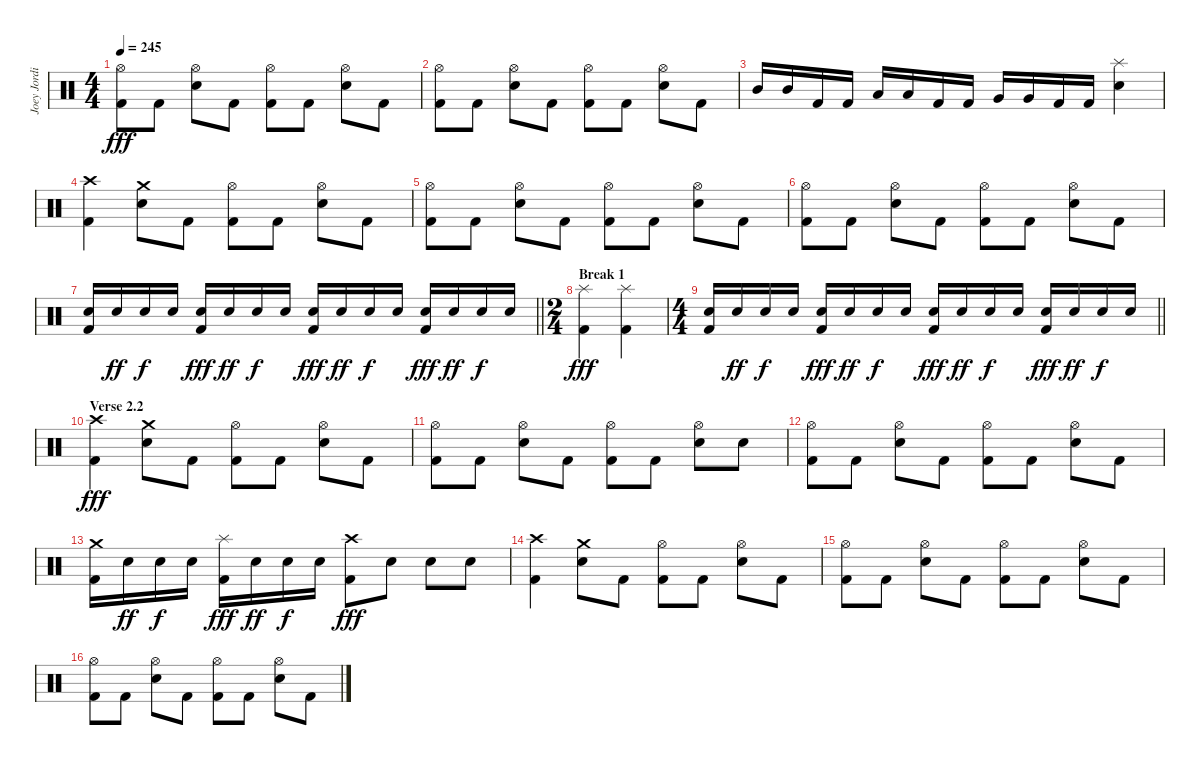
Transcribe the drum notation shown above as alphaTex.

\track ("Joey Jordison" "Joey Jordi") {instrument percussion}
\staff {score}
\articulation defaults
\ts (4 4)
\tempo 245
\clef neutral
\ks c
("Hi-Hat (open)" "Kick (hit) 2").8{dy fff} "Kick (hit) 2".8 ("Hi-Hat (open)" "Electric Snare (hit)").8 "Kick (hit) 2".8 ("Hi-Hat (open)" "Kick (hit) 2").8 "Kick (hit) 2".8 ("Hi-Hat (open)" "Electric Snare (hit)").8 "Kick (hit) 2".8 |
("Hi-Hat (open)" "Kick (hit) 2").8 "Kick (hit) 2".8 ("Hi-Hat (open)" "Electric Snare (hit)").8 "Kick (hit) 2".8 ("Hi-Hat (open)" "Kick (hit) 2").8 "Kick (hit) 2".8 ("Hi-Hat (open)" "Electric Snare (hit)").8 "Kick (hit) 2".8 |
"Mid Tom (hit)".16 "Mid Tom (hit)".16 "Kick (hit) 2".16 "Kick (hit) 2".16 "Low Tom (hit)".16 "Low Tom (hit)".16 "Kick (hit) 2".16 "Kick (hit) 2".16 "Very Low Tom (hit)".16 "Very Low Tom (hit)".16 "Kick (hit) 2".16 "Kick (hit) 2".16 ("Splash (hit)" "Electric Snare (hit)").4 |
("Crash high (hit)" "Kick (hit) 2").4 ("Crash medium (hit)" "Electric Snare (hit)").8 "Kick (hit) 2".8 ("Hi-Hat (open)" "Kick (hit) 2").8 "Kick (hit) 2".8 ("Hi-Hat (open)" "Electric Snare (hit)").8 "Kick (hit) 2".8 |
("Hi-Hat (open)" "Kick (hit) 2").8 "Kick (hit) 2".8 ("Hi-Hat (open)" "Electric Snare (hit)").8 "Kick (hit) 2".8 ("Hi-Hat (open)" "Kick (hit) 2").8 "Kick (hit) 2".8 ("Hi-Hat (open)" "Electric Snare (hit)").8 "Kick (hit) 2".8 |
("Hi-Hat (open)" "Kick (hit) 2").8 "Kick (hit) 2".8 ("Hi-Hat (open)" "Electric Snare (hit)").8 "Kick (hit) 2".8 ("Hi-Hat (open)" "Kick (hit) 2").8 "Kick (hit) 2".8 ("Hi-Hat (open)" "Electric Snare (hit)").8 "Kick (hit) 2".8 |
\barLineRight lightlight
("Electric Snare (hit)" "Kick (hit) 2").16 "Electric Snare (hit)".16{dy ff} "Electric Snare (hit)".16{dy f} "Electric Snare (hit)".16 ("Electric Snare (hit)" "Kick (hit) 2").16{dy fff} "Electric Snare (hit)".16{dy ff} "Electric Snare (hit)".16{dy f} "Electric Snare (hit)".16 ("Electric Snare (hit)" "Kick (hit) 2").16{dy fff} "Electric Snare (hit)".16{dy ff} "Electric Snare (hit)".16{dy f} "Electric Snare (hit)".16 ("Electric Snare (hit)" "Kick (hit) 2").16{dy fff} "Electric Snare (hit)".16{dy ff} "Electric Snare (hit)".16{dy f} "Electric Snare (hit)".16 |
\ts (2 4)
\section ("" "Break 1")
("Splash (hit)" "Kick (hit) 2").4{dy fff} ("Splash (hit)" "Kick (hit) 2").4 |
\ts (4 4)
\barLineRight lightlight
("Electric Snare (hit)" "Kick (hit) 2").16 "Electric Snare (hit)".16{dy ff} "Electric Snare (hit)".16{dy f} "Electric Snare (hit)".16 ("Electric Snare (hit)" "Kick (hit) 2").16{dy fff} "Electric Snare (hit)".16{dy ff} "Electric Snare (hit)".16{dy f} "Electric Snare (hit)".16 ("Electric Snare (hit)" "Kick (hit) 2").16{dy fff} "Electric Snare (hit)".16{dy ff} "Electric Snare (hit)".16{dy f} "Electric Snare (hit)".16 ("Electric Snare (hit)" "Kick (hit) 2").16{dy fff} "Electric Snare (hit)".16{dy ff} "Electric Snare (hit)".16{dy f} "Electric Snare (hit)".16 |
\section ("" "Verse 2.2")
("Crash high (hit)" "Kick (hit) 2").4{dy fff} ("Crash medium (hit)" "Electric Snare (hit)").8 "Kick (hit) 2".8 ("Hi-Hat (open)" "Kick (hit) 2").8 "Kick (hit) 2".8 ("Hi-Hat (open)" "Electric Snare (hit)").8 "Kick (hit) 2".8 |
("Hi-Hat (open)" "Kick (hit) 2").8 "Kick (hit) 2".8 ("Hi-Hat (open)" "Electric Snare (hit)").8 "Kick (hit) 2".8 ("Hi-Hat (open)" "Kick (hit) 2").8 "Kick (hit) 2".8 ("Hi-Hat (open)" "Electric Snare (hit)").8 "Electric Snare (hit)".8 |
("Hi-Hat (open)" "Kick (hit) 2").8 "Kick (hit) 2".8 ("Hi-Hat (open)" "Electric Snare (hit)").8 "Kick (hit) 2".8 ("Hi-Hat (open)" "Kick (hit) 2").8 "Kick (hit) 2".8 ("Hi-Hat (open)" "Electric Snare (hit)").8 "Kick (hit) 2".8 |
("Crash medium (hit)" "Kick (hit) 2").16 "Electric Snare (hit)".16{dy ff} "Electric Snare (hit)".16{dy f} "Electric Snare (hit)".16 ("Splash (hit)" "Kick (hit) 2").16{dy fff} "Electric Snare (hit)".16{dy ff} "Electric Snare (hit)".16{dy f} "Electric Snare (hit)".16 ("Crash high (hit)" "Kick (hit) 2").8{dy fff} "Electric Snare (hit)".8 "Electric Snare (hit)".8 "Electric Snare (hit)".8 |
("Crash high (hit)" "Kick (hit) 2").4 ("Crash medium (hit)" "Electric Snare (hit)").8 "Kick (hit) 2".8 ("Hi-Hat (open)" "Kick (hit) 2").8 "Kick (hit) 2".8 ("Hi-Hat (open)" "Electric Snare (hit)").8 "Kick (hit) 2".8 |
("Hi-Hat (open)" "Kick (hit) 2").8 "Kick (hit) 2".8 ("Hi-Hat (open)" "Electric Snare (hit)").8 "Kick (hit) 2".8 ("Hi-Hat (open)" "Kick (hit) 2").8 "Kick (hit) 2".8 ("Hi-Hat (open)" "Electric Snare (hit)").8 "Kick (hit) 2".8 |
("Hi-Hat (open)" "Kick (hit) 2").8 "Kick (hit) 2".8 ("Hi-Hat (open)" "Electric Snare (hit)").8 "Kick (hit) 2".8 ("Hi-Hat (open)" "Kick (hit) 2").8 "Kick (hit) 2".8 ("Hi-Hat (open)" "Electric Snare (hit)").8 "Kick (hit) 2".8
